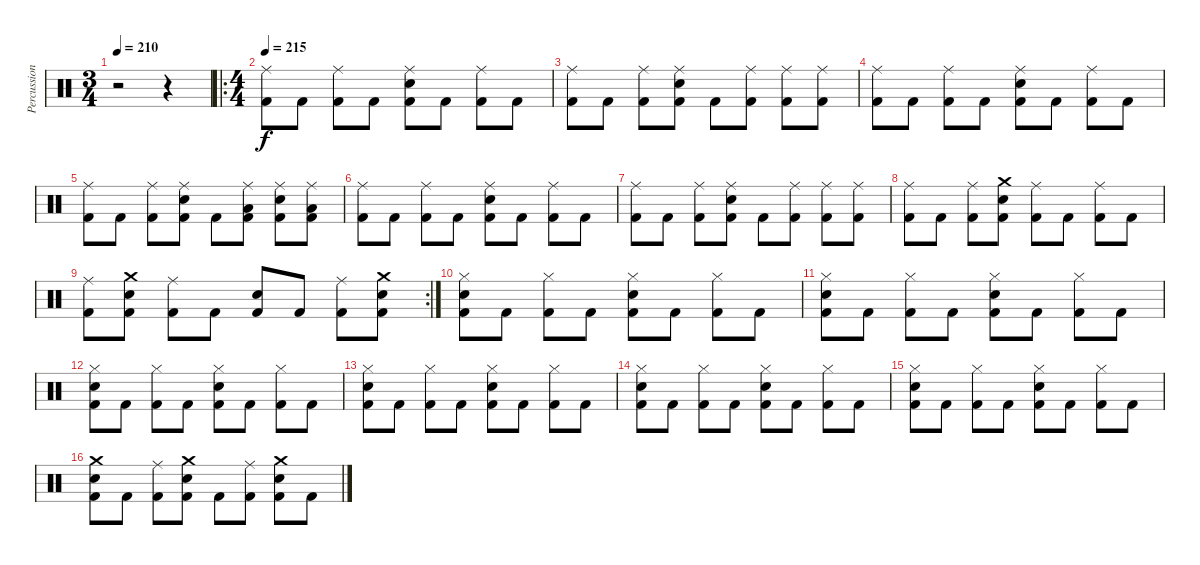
\track ("Percussion" "Percussion") {instrument percussion}
\staff {score}
\articulation defaults
\ts (3 4)
\tempo 210
\clef neutral
\ks c
r.2{dy f} r.4 |
\ro
\ts (4 4)
\tempo 215
("Ride (middle)" "Kick (hit) 2").8 "Kick (hit) 2".8 ("Ride (middle)" "Kick (hit) 2").8 "Kick (hit) 2".8 ("Ride (middle)" "Snare (hit) 2" "Kick (hit) 2").8 "Kick (hit) 2".8 ("Ride (middle)" "Kick (hit) 2").8 "Kick (hit) 2".8 |
("Ride (middle)" "Kick (hit) 2").8 "Kick (hit) 2".8 ("Ride (middle)" "Kick (hit) 2").8 ("Ride (middle)" "Electric Snare (hit)" "Kick (hit) 2").8 "Kick (hit) 2".8 ("Ride (middle)" "Kick (hit) 2").8 ("Ride (middle)" "Kick (hit) 2").8 ("Ride (middle)" "Kick (hit) 2").8 |
("Ride (middle)" "Kick (hit) 2").8 "Kick (hit) 2".8 ("Ride (middle)" "Kick (hit) 2").8 "Kick (hit) 2".8 ("Ride (middle)" "Snare (hit) 2" "Kick (hit) 2").8 "Kick (hit) 2".8 ("Ride (middle)" "Kick (hit) 2").8 "Kick (hit) 2".8 |
("Ride (middle)" "Kick (hit) 2").8 "Kick (hit) 2".8 ("Ride (middle)" "Kick (hit) 2").8 ("Ride (middle)" "Electric Snare (hit)" "Kick (hit) 2").8 "Kick (hit) 2".8 ("Ride (middle)" "Low Tom (hit)" "Kick (hit) 2").8 ("Ride (middle)" "Snare (hit) 2" "Kick (hit) 2").8 ("Ride (middle)" "Low Tom (hit)" "Kick (hit) 2").8 |
("Ride (middle)" "Kick (hit) 2").8 "Kick (hit) 2".8 ("Ride (middle)" "Kick (hit) 2").8 "Kick (hit) 2".8 ("Ride (middle)" "Snare (hit) 2" "Kick (hit) 2").8 "Kick (hit) 2".8 ("Ride (middle)" "Kick (hit) 2").8 "Kick (hit) 2".8 |
("Ride (middle)" "Kick (hit) 2").8 "Kick (hit) 2".8 ("Ride (middle)" "Kick (hit) 2").8 ("Ride (middle)" "Electric Snare (hit)" "Kick (hit) 2").8 "Kick (hit) 2".8 ("Ride (middle)" "Kick (hit) 2").8 ("Ride (middle)" "Kick (hit) 2").8 ("Ride (middle)" "Kick (hit) 2").8 |
("Ride (middle)" "Kick (hit) 2").8 "Kick (hit) 2".8 ("Ride (middle)" "Kick (hit) 2").8 ("Crash medium (hit)" "Electric Snare (hit)" "Kick (hit) 2").8 ("Ride (middle)" "Kick (hit) 2").8 "Kick (hit) 2".8 ("Ride (middle)" "Kick (hit) 2").8 "Kick (hit) 2".8 |
\rc 2
("Ride (middle)" "Kick (hit) 2").8 ("Crash medium (hit)" "Electric Snare (hit)" "Kick (hit) 2").8 ("Ride (middle)" "Kick (hit) 2").8 "Kick (hit) 2".8 ("Electric Snare (hit)" "Kick (hit) 2").8 "Kick (hit) 2".8 ("Ride (middle)" "Kick (hit) 2").8 ("Crash medium (hit)" "Electric Snare (hit)" "Kick (hit) 2").8 |
("Hi-Hat (closed)" "Snare (hit) 2" "Kick (hit) 2").8 "Kick (hit) 2".8 ("Hi-Hat (closed)" "Kick (hit) 2").8 "Kick (hit) 2".8 ("Hi-Hat (closed)" "Snare (hit) 2" "Kick (hit) 2").8 "Kick (hit) 2".8 ("Hi-Hat (closed)" "Kick (hit) 2").8 "Kick (hit) 2".8 |
("Hi-Hat (closed)" "Snare (hit) 2" "Kick (hit) 2").8 "Kick (hit) 2".8 ("Hi-Hat (closed)" "Kick (hit) 2").8 "Kick (hit) 2".8 ("Hi-Hat (closed)" "Snare (hit) 2" "Kick (hit) 2").8 "Kick (hit) 2".8 ("Hi-Hat (closed)" "Kick (hit) 2").8 "Kick (hit) 2".8 |
("Hi-Hat (closed)" "Snare (hit) 2" "Kick (hit) 2").8 "Kick (hit) 2".8 ("Hi-Hat (closed)" "Kick (hit) 2").8 "Kick (hit) 2".8 ("Hi-Hat (closed)" "Snare (hit) 2" "Kick (hit) 2").8 "Kick (hit) 2".8 ("Hi-Hat (closed)" "Kick (hit) 2").8 "Kick (hit) 2".8 |
("Hi-Hat (closed)" "Snare (hit) 2" "Kick (hit) 2").8 "Kick (hit) 2".8 ("Hi-Hat (closed)" "Kick (hit) 2").8 "Kick (hit) 2".8 ("Hi-Hat (closed)" "Snare (hit) 2" "Kick (hit) 2").8 "Kick (hit) 2".8 ("Hi-Hat (closed)" "Kick (hit) 2").8 "Kick (hit) 2".8 |
("Hi-Hat (closed)" "Snare (hit) 2" "Kick (hit) 2").8 "Kick (hit) 2".8 ("Hi-Hat (closed)" "Kick (hit) 2").8 "Kick (hit) 2".8 ("Hi-Hat (closed)" "Snare (hit) 2" "Kick (hit) 2").8 "Kick (hit) 2".8 ("Hi-Hat (closed)" "Kick (hit) 2").8 "Kick (hit) 2".8 |
("Hi-Hat (closed)" "Snare (hit) 2" "Kick (hit) 2").8 "Kick (hit) 2".8 ("Hi-Hat (closed)" "Kick (hit) 2").8 "Kick (hit) 2".8 ("Hi-Hat (closed)" "Snare (hit) 2" "Kick (hit) 2").8 "Kick (hit) 2".8 ("Hi-Hat (closed)" "Kick (hit) 2").8 "Kick (hit) 2".8 |
("Crash medium (hit)" "Snare (hit) 2" "Kick (hit) 2").8 "Kick (hit) 2".8 ("Ride (middle)" "Kick (hit) 2").8 ("Crash medium (hit)" "Snare (hit) 2" "Kick (hit) 2").8 "Kick (hit) 2".8 ("Ride (middle)" "Kick (hit) 2").8 ("Crash medium (hit)" "Snare (hit) 2" "Kick (hit) 2").8 "Kick (hit) 2".8
